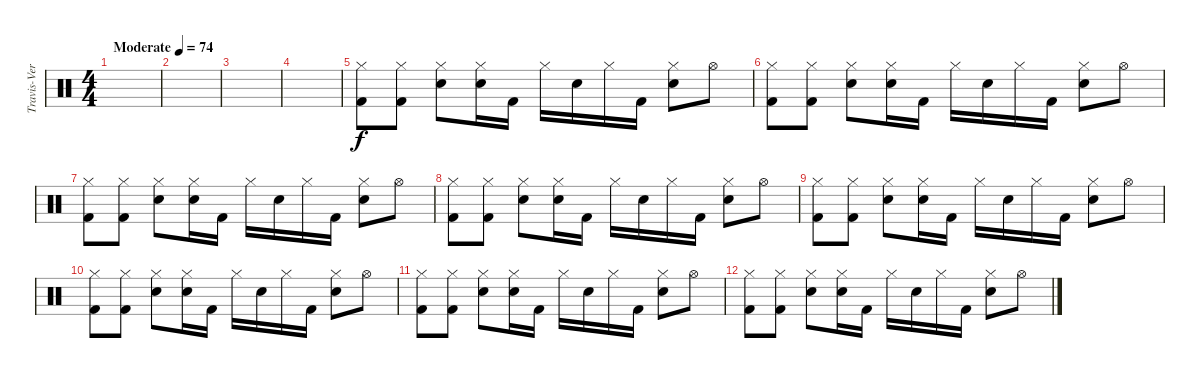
\track ("Travis-Verse" "Travis-Ver") {instrument percussion}
\staff {score}
\articulation defaults
\ts (4 4)
\tempo (74 "Moderate")
\clef neutral
\ks c
|
|
|
|
("Hi-Hat (closed)" "Kick (hit) 2").8{volume 8} ("Hi-Hat (closed)" "Kick (hit) 2").8 ("Hi-Hat (closed)" "Electric Snare (hit)").8 ("Hi-Hat (closed)" "Electric Snare (hit)").16 "Kick (hit) 2".16 "Hi-Hat (closed)".16 "Electric Snare (hit)".16 "Hi-Hat (closed)".16 "Kick (hit) 2".16 ("Hi-Hat (closed)" "Electric Snare (hit)").8 "Hi-Hat (open)".8 |
("Hi-Hat (closed)" "Kick (hit) 2").8 ("Hi-Hat (closed)" "Kick (hit) 2").8 ("Hi-Hat (closed)" "Electric Snare (hit)").8 ("Hi-Hat (closed)" "Electric Snare (hit)").16 "Kick (hit) 2".16 "Hi-Hat (closed)".16 "Electric Snare (hit)".16 "Hi-Hat (closed)".16 "Kick (hit) 2".16 ("Hi-Hat (closed)" "Electric Snare (hit)").8 "Hi-Hat (open)".8 |
("Hi-Hat (closed)" "Kick (hit) 2").8 ("Hi-Hat (closed)" "Kick (hit) 2").8 ("Hi-Hat (closed)" "Electric Snare (hit)").8 ("Hi-Hat (closed)" "Electric Snare (hit)").16 "Kick (hit) 2".16 "Hi-Hat (closed)".16 "Electric Snare (hit)".16 "Hi-Hat (closed)".16 "Kick (hit) 2".16 ("Hi-Hat (closed)" "Electric Snare (hit)").8 "Hi-Hat (open)".8 |
("Hi-Hat (closed)" "Kick (hit) 2").8 ("Hi-Hat (closed)" "Kick (hit) 2").8 ("Hi-Hat (closed)" "Electric Snare (hit)").8 ("Hi-Hat (closed)" "Electric Snare (hit)").16 "Kick (hit) 2".16 "Hi-Hat (closed)".16 "Electric Snare (hit)".16 "Hi-Hat (closed)".16 "Kick (hit) 2".16 ("Hi-Hat (closed)" "Electric Snare (hit)").8 "Hi-Hat (open)".8 |
("Hi-Hat (closed)" "Kick (hit) 2").8 ("Hi-Hat (closed)" "Kick (hit) 2").8 ("Hi-Hat (closed)" "Electric Snare (hit)").8 ("Hi-Hat (closed)" "Electric Snare (hit)").16 "Kick (hit) 2".16 "Hi-Hat (closed)".16 "Electric Snare (hit)".16 "Hi-Hat (closed)".16 "Kick (hit) 2".16 ("Hi-Hat (closed)" "Electric Snare (hit)").8 "Hi-Hat (open)".8 |
("Hi-Hat (closed)" "Kick (hit) 2").8 ("Hi-Hat (closed)" "Kick (hit) 2").8 ("Hi-Hat (closed)" "Electric Snare (hit)").8 ("Hi-Hat (closed)" "Electric Snare (hit)").16 "Kick (hit) 2".16 "Hi-Hat (closed)".16 "Electric Snare (hit)".16 "Hi-Hat (closed)".16 "Kick (hit) 2".16 ("Hi-Hat (closed)" "Electric Snare (hit)").8 "Hi-Hat (open)".8 |
("Hi-Hat (closed)" "Kick (hit) 2").8 ("Hi-Hat (closed)" "Kick (hit) 2").8 ("Hi-Hat (closed)" "Electric Snare (hit)").8 ("Hi-Hat (closed)" "Electric Snare (hit)").16 "Kick (hit) 2".16 "Hi-Hat (closed)".16 "Electric Snare (hit)".16 "Hi-Hat (closed)".16 "Kick (hit) 2".16 ("Hi-Hat (closed)" "Electric Snare (hit)").8 "Hi-Hat (open)".8 |
("Hi-Hat (closed)" "Kick (hit) 2").8 ("Hi-Hat (closed)" "Kick (hit) 2").8 ("Hi-Hat (closed)" "Electric Snare (hit)").8 ("Hi-Hat (closed)" "Electric Snare (hit)").16 "Kick (hit) 2".16 "Hi-Hat (closed)".16 "Electric Snare (hit)".16 "Hi-Hat (closed)".16 "Kick (hit) 2".16 ("Hi-Hat (closed)" "Electric Snare (hit)").8 "Hi-Hat (open)".8
